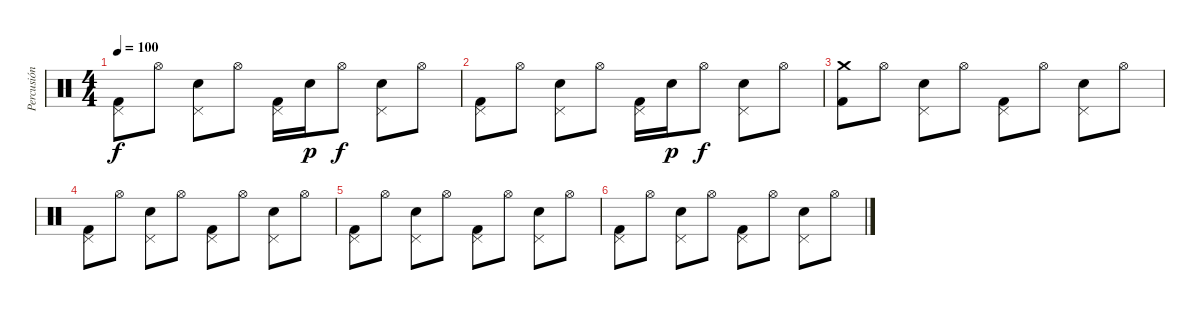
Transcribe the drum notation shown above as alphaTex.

\track ("Percusión" "Percusión") {instrument percussion}
\staff {score}
\articulation defaults
\ts (4 4)
\tempo 100
\clef neutral
\ks c
("Pedal Hi-Hat (hit)" "Kick (hit) 2").8{dy f} "Hi-Hat (open)".8 ("Electric Snare (hit)" "Pedal Hi-Hat (hit)").8 "Hi-Hat (open)".8 ("Pedal Hi-Hat (hit)" "Kick (hit) 2").16 "Electric Snare (hit)".16{dy p} "Hi-Hat (open)".8{dy f} ("Electric Snare (hit)" "Pedal Hi-Hat (hit)").8 "Hi-Hat (open)".8 |
("Pedal Hi-Hat (hit)" "Kick (hit) 2").8 "Hi-Hat (open)".8 ("Electric Snare (hit)" "Pedal Hi-Hat (hit)").8 "Hi-Hat (open)".8 ("Pedal Hi-Hat (hit)" "Kick (hit) 2").16 "Electric Snare (hit)".16{dy p} "Hi-Hat (open)".8{dy f} ("Electric Snare (hit)" "Pedal Hi-Hat (hit)").8 "Hi-Hat (open)".8 |
("Crash medium (hit)" "Kick (hit) 2").8 "Hi-Hat (open)".8 ("Electric Snare (hit)" "Pedal Hi-Hat (hit)").8 "Hi-Hat (open)".8 ("Pedal Hi-Hat (hit)" "Kick (hit) 2").8 "Hi-Hat (open)".8 ("Electric Snare (hit)" "Pedal Hi-Hat (hit)").8 "Hi-Hat (open)".8 |
("Pedal Hi-Hat (hit)" "Kick (hit) 2").8 "Hi-Hat (open)".8 ("Electric Snare (hit)" "Pedal Hi-Hat (hit)").8 "Hi-Hat (open)".8 ("Pedal Hi-Hat (hit)" "Kick (hit) 2").8 "Hi-Hat (open)".8 ("Electric Snare (hit)" "Pedal Hi-Hat (hit)").8 "Hi-Hat (open)".8 |
("Pedal Hi-Hat (hit)" "Kick (hit) 2").8 "Hi-Hat (open)".8 ("Electric Snare (hit)" "Pedal Hi-Hat (hit)").8 "Hi-Hat (open)".8 ("Pedal Hi-Hat (hit)" "Kick (hit) 2").8 "Hi-Hat (open)".8 ("Electric Snare (hit)" "Pedal Hi-Hat (hit)").8 "Hi-Hat (open)".8 |
("Pedal Hi-Hat (hit)" "Kick (hit) 2").8 "Hi-Hat (open)".8 ("Electric Snare (hit)" "Pedal Hi-Hat (hit)").8 "Hi-Hat (open)".8 ("Pedal Hi-Hat (hit)" "Kick (hit) 2").8 "Hi-Hat (open)".8 ("Electric Snare (hit)" "Pedal Hi-Hat (hit)").8 "Hi-Hat (open)".8
